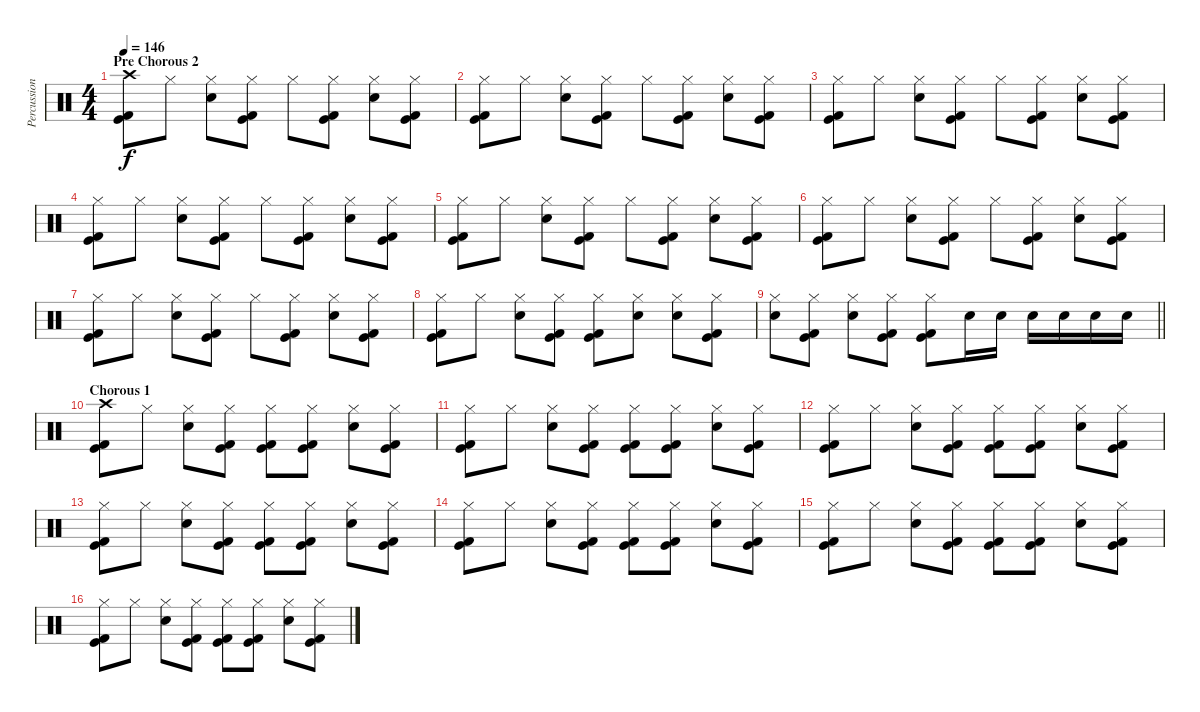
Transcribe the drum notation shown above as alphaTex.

\track ("Percussion" "Percussion") {instrument percussion}
\staff {score}
\articulation defaults
\ts (4 4)
\section ("" "Pre Chorous 2")
\tempo 146
\clef neutral
\ks c
("Crash high (hit)" "Kick (hit)" "Kick (hit) 2").8{dy f} "Hi-Hat (closed)".8 ("Hi-Hat (closed)" "Electric Snare (hit)").8 ("Hi-Hat (closed)" "Kick (hit)" "Kick (hit) 2").8 "Hi-Hat (closed)".8 ("Hi-Hat (closed)" "Kick (hit)" "Kick (hit) 2").8 ("Hi-Hat (closed)" "Electric Snare (hit)").8 ("Hi-Hat (closed)" "Kick (hit)" "Kick (hit) 2").8 |
("Hi-Hat (closed)" "Kick (hit)" "Kick (hit) 2").8 "Hi-Hat (closed)".8 ("Hi-Hat (closed)" "Electric Snare (hit)").8 ("Hi-Hat (closed)" "Kick (hit)" "Kick (hit) 2").8 "Hi-Hat (closed)".8 ("Hi-Hat (closed)" "Kick (hit)" "Kick (hit) 2").8 ("Hi-Hat (closed)" "Electric Snare (hit)").8 ("Hi-Hat (closed)" "Kick (hit)" "Kick (hit) 2").8 |
("Hi-Hat (closed)" "Kick (hit)" "Kick (hit) 2").8 "Hi-Hat (closed)".8 ("Hi-Hat (closed)" "Electric Snare (hit)").8 ("Hi-Hat (closed)" "Kick (hit)" "Kick (hit) 2").8 "Hi-Hat (closed)".8 ("Hi-Hat (closed)" "Kick (hit)" "Kick (hit) 2").8 ("Hi-Hat (closed)" "Electric Snare (hit)").8 ("Hi-Hat (closed)" "Kick (hit)" "Kick (hit) 2").8 |
("Hi-Hat (closed)" "Kick (hit)" "Kick (hit) 2").8 "Hi-Hat (closed)".8 ("Hi-Hat (closed)" "Electric Snare (hit)").8 ("Hi-Hat (closed)" "Kick (hit)" "Kick (hit) 2").8 "Hi-Hat (closed)".8 ("Hi-Hat (closed)" "Kick (hit)" "Kick (hit) 2").8 ("Hi-Hat (closed)" "Electric Snare (hit)").8 ("Hi-Hat (closed)" "Kick (hit)" "Kick (hit) 2").8 |
("Hi-Hat (closed)" "Kick (hit)" "Kick (hit) 2").8 "Hi-Hat (closed)".8 ("Hi-Hat (closed)" "Electric Snare (hit)").8 ("Hi-Hat (closed)" "Kick (hit)" "Kick (hit) 2").8 "Hi-Hat (closed)".8 ("Hi-Hat (closed)" "Kick (hit)" "Kick (hit) 2").8 ("Hi-Hat (closed)" "Electric Snare (hit)").8 ("Hi-Hat (closed)" "Kick (hit)" "Kick (hit) 2").8 |
("Hi-Hat (closed)" "Kick (hit)" "Kick (hit) 2").8 "Hi-Hat (closed)".8 ("Hi-Hat (closed)" "Electric Snare (hit)").8 ("Hi-Hat (closed)" "Kick (hit)" "Kick (hit) 2").8 "Hi-Hat (closed)".8 ("Hi-Hat (closed)" "Kick (hit)" "Kick (hit) 2").8 ("Hi-Hat (closed)" "Electric Snare (hit)").8 ("Hi-Hat (closed)" "Kick (hit)" "Kick (hit) 2").8 |
("Hi-Hat (closed)" "Kick (hit)" "Kick (hit) 2").8 "Hi-Hat (closed)".8 ("Hi-Hat (closed)" "Electric Snare (hit)").8 ("Hi-Hat (closed)" "Kick (hit)" "Kick (hit) 2").8 "Hi-Hat (closed)".8 ("Hi-Hat (closed)" "Kick (hit)" "Kick (hit) 2").8 ("Hi-Hat (closed)" "Electric Snare (hit)").8 ("Hi-Hat (closed)" "Kick (hit)" "Kick (hit) 2").8 |
("Hi-Hat (closed)" "Kick (hit)" "Kick (hit) 2").8 "Hi-Hat (closed)".8 ("Hi-Hat (closed)" "Electric Snare (hit)").8 ("Hi-Hat (closed)" "Kick (hit)" "Kick (hit) 2").8 ("Hi-Hat (closed)" "Kick (hit)" "Kick (hit) 2").8 ("Hi-Hat (closed)" "Electric Snare (hit)").8 ("Hi-Hat (closed)" "Electric Snare (hit)").8 ("Hi-Hat (closed)" "Kick (hit)" "Kick (hit) 2").8 |
\barLineRight lightlight
("Hi-Hat (closed)" "Electric Snare (hit)").8 ("Hi-Hat (closed)" "Kick (hit)" "Kick (hit) 2").8 ("Hi-Hat (closed)" "Electric Snare (hit)").8 ("Hi-Hat (closed)" "Kick (hit)" "Kick (hit) 2").8 ("Hi-Hat (closed)" "Kick (hit)" "Kick (hit) 2").8 "Electric Snare (hit)".16 "Electric Snare (hit)".16 "Electric Snare (hit)".16 "Electric Snare (hit)".16 "Electric Snare (hit)".16 "Electric Snare (hit)".16 |
\section ("" "Chorous 1")
("Crash high (hit)" "Kick (hit)" "Kick (hit) 2").8 "Hi-Hat (closed)".8 ("Hi-Hat (closed)" "Electric Snare (hit)").8 ("Hi-Hat (closed)" "Kick (hit)" "Kick (hit) 2").8 ("Hi-Hat (closed)" "Kick (hit)" "Kick (hit) 2").8 ("Hi-Hat (closed)" "Kick (hit)" "Kick (hit) 2").8 ("Hi-Hat (closed)" "Electric Snare (hit)").8 ("Hi-Hat (closed)" "Kick (hit)" "Kick (hit) 2").8 |
("Hi-Hat (closed)" "Kick (hit)" "Kick (hit) 2").8 "Hi-Hat (closed)".8 ("Hi-Hat (closed)" "Electric Snare (hit)").8 ("Hi-Hat (closed)" "Kick (hit)" "Kick (hit) 2").8 ("Hi-Hat (closed)" "Kick (hit)" "Kick (hit) 2").8 ("Hi-Hat (closed)" "Kick (hit)" "Kick (hit) 2").8 ("Hi-Hat (closed)" "Electric Snare (hit)").8 ("Hi-Hat (closed)" "Kick (hit)" "Kick (hit) 2").8 |
("Hi-Hat (closed)" "Kick (hit)" "Kick (hit) 2").8 "Hi-Hat (closed)".8 ("Hi-Hat (closed)" "Electric Snare (hit)").8 ("Hi-Hat (closed)" "Kick (hit)" "Kick (hit) 2").8 ("Hi-Hat (closed)" "Kick (hit)" "Kick (hit) 2").8 ("Hi-Hat (closed)" "Kick (hit)" "Kick (hit) 2").8 ("Hi-Hat (closed)" "Electric Snare (hit)").8 ("Hi-Hat (closed)" "Kick (hit)" "Kick (hit) 2").8 |
("Hi-Hat (closed)" "Kick (hit)" "Kick (hit) 2").8 "Hi-Hat (closed)".8 ("Hi-Hat (closed)" "Electric Snare (hit)").8 ("Hi-Hat (closed)" "Kick (hit)" "Kick (hit) 2").8 ("Hi-Hat (closed)" "Kick (hit)" "Kick (hit) 2").8 ("Hi-Hat (closed)" "Kick (hit)" "Kick (hit) 2").8 ("Hi-Hat (closed)" "Electric Snare (hit)").8 ("Hi-Hat (closed)" "Kick (hit)" "Kick (hit) 2").8 |
("Hi-Hat (closed)" "Kick (hit)" "Kick (hit) 2").8 "Hi-Hat (closed)".8 ("Hi-Hat (closed)" "Electric Snare (hit)").8 ("Hi-Hat (closed)" "Kick (hit)" "Kick (hit) 2").8 ("Hi-Hat (closed)" "Kick (hit)" "Kick (hit) 2").8 ("Hi-Hat (closed)" "Kick (hit)" "Kick (hit) 2").8 ("Hi-Hat (closed)" "Electric Snare (hit)").8 ("Hi-Hat (closed)" "Kick (hit)" "Kick (hit) 2").8 |
("Hi-Hat (closed)" "Kick (hit)" "Kick (hit) 2").8 "Hi-Hat (closed)".8 ("Hi-Hat (closed)" "Electric Snare (hit)").8 ("Hi-Hat (closed)" "Kick (hit)" "Kick (hit) 2").8 ("Hi-Hat (closed)" "Kick (hit)" "Kick (hit) 2").8 ("Hi-Hat (closed)" "Kick (hit)" "Kick (hit) 2").8 ("Hi-Hat (closed)" "Electric Snare (hit)").8 ("Hi-Hat (closed)" "Kick (hit)" "Kick (hit) 2").8 |
("Hi-Hat (closed)" "Kick (hit)" "Kick (hit) 2").8 "Hi-Hat (closed)".8 ("Hi-Hat (closed)" "Electric Snare (hit)").8 ("Hi-Hat (closed)" "Kick (hit)" "Kick (hit) 2").8 ("Hi-Hat (closed)" "Kick (hit)" "Kick (hit) 2").8 ("Hi-Hat (closed)" "Kick (hit)" "Kick (hit) 2").8 ("Hi-Hat (closed)" "Electric Snare (hit)").8 ("Hi-Hat (closed)" "Kick (hit)" "Kick (hit) 2").8
